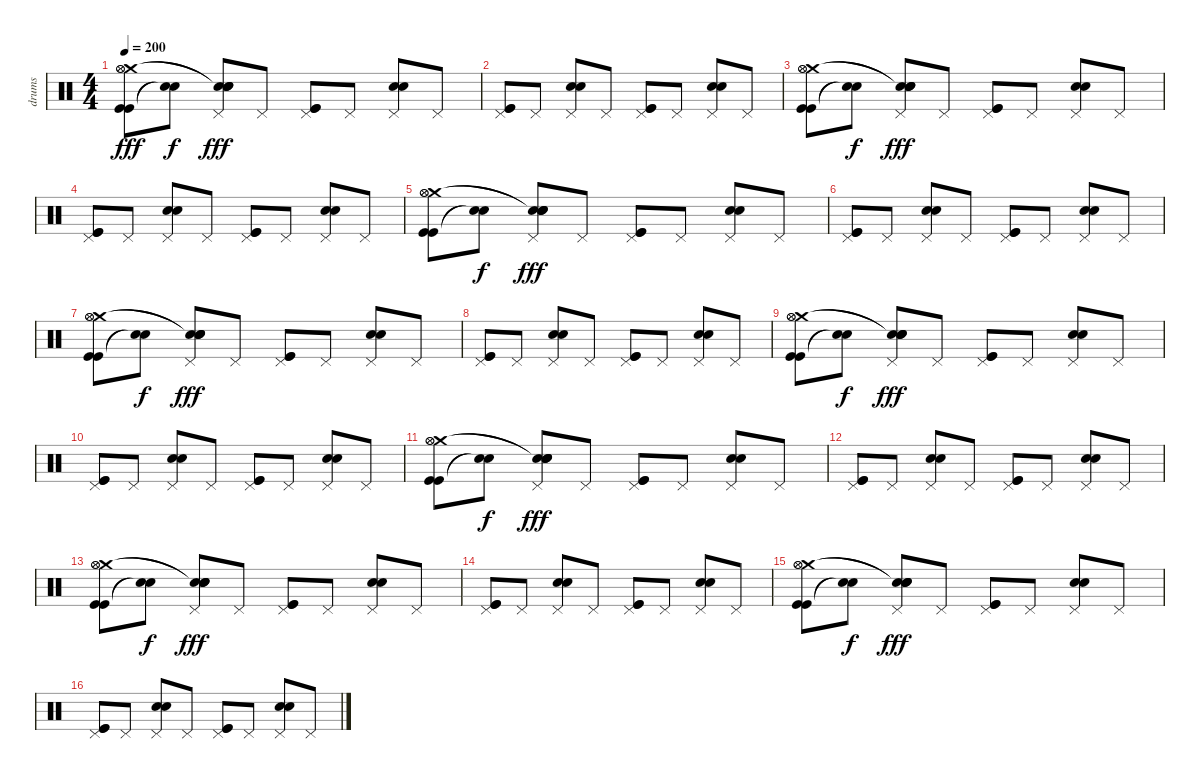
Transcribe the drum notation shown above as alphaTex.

\track ("drums" "drums") {instrument percussion}
\staff {score}
\articulation defaults
\ts (4 4)
\tempo 200
\clef neutral
\ks c
("Kick (hit)" "Kick (hit)" "Crash medium (hit)" "Hi-Hat (open)" "Hi-Hat (open)").8{dy fff} ("Snare (hit)"{t} "Snare (hit)"{t}).8{dy f} ("Snare (hit) 2" "Electric Snare (hit)" "Pedal Hi-Hat (hit)" "Snare (hit)"{t} "Snare (hit)"{t}).8{dy fff} "Pedal Hi-Hat (hit)".8 ("Kick (hit)" "Kick (hit)" "Pedal Hi-Hat (hit)").8 "Pedal Hi-Hat (hit)".8 ("Snare (hit) 2" "Electric Snare (hit)" "Pedal Hi-Hat (hit)").8 "Pedal Hi-Hat (hit)".8 |
("Kick (hit)" "Kick (hit)" "Pedal Hi-Hat (hit)").8 "Pedal Hi-Hat (hit)".8 ("Snare (hit) 2" "Electric Snare (hit)" "Pedal Hi-Hat (hit)").8 "Pedal Hi-Hat (hit)".8 ("Kick (hit)" "Kick (hit)" "Pedal Hi-Hat (hit)").8 "Pedal Hi-Hat (hit)".8 ("Snare (hit) 2" "Electric Snare (hit)" "Pedal Hi-Hat (hit)").8 "Pedal Hi-Hat (hit)".8 |
("Kick (hit)" "Kick (hit)" "Crash medium (hit)" "Hi-Hat (open)" "Hi-Hat (open)").8 ("Snare (hit)"{t} "Snare (hit)"{t}).8{dy f} ("Snare (hit) 2" "Electric Snare (hit)" "Pedal Hi-Hat (hit)" "Snare (hit)"{t} "Snare (hit)"{t}).8{dy fff} "Pedal Hi-Hat (hit)".8 ("Kick (hit)" "Kick (hit)" "Pedal Hi-Hat (hit)").8 "Pedal Hi-Hat (hit)".8 ("Snare (hit) 2" "Electric Snare (hit)" "Pedal Hi-Hat (hit)").8 "Pedal Hi-Hat (hit)".8 |
("Kick (hit)" "Kick (hit)" "Pedal Hi-Hat (hit)").8 "Pedal Hi-Hat (hit)".8 ("Snare (hit) 2" "Electric Snare (hit)" "Pedal Hi-Hat (hit)").8 "Pedal Hi-Hat (hit)".8 ("Kick (hit)" "Kick (hit)" "Pedal Hi-Hat (hit)").8 "Pedal Hi-Hat (hit)".8 ("Snare (hit) 2" "Electric Snare (hit)" "Pedal Hi-Hat (hit)").8 "Pedal Hi-Hat (hit)".8 |
("Kick (hit)" "Kick (hit)" "Crash medium (hit)" "Hi-Hat (open)" "Hi-Hat (open)").8 ("Snare (hit)"{t} "Snare (hit)"{t}).8{dy f} ("Snare (hit) 2" "Electric Snare (hit)" "Pedal Hi-Hat (hit)" "Snare (hit)"{t} "Snare (hit)"{t}).8{dy fff} "Pedal Hi-Hat (hit)".8 ("Kick (hit)" "Kick (hit)" "Pedal Hi-Hat (hit)").8 "Pedal Hi-Hat (hit)".8 ("Snare (hit) 2" "Electric Snare (hit)" "Pedal Hi-Hat (hit)").8 "Pedal Hi-Hat (hit)".8 |
("Kick (hit)" "Kick (hit)" "Pedal Hi-Hat (hit)").8 "Pedal Hi-Hat (hit)".8 ("Snare (hit) 2" "Electric Snare (hit)" "Pedal Hi-Hat (hit)").8 "Pedal Hi-Hat (hit)".8 ("Kick (hit)" "Kick (hit)" "Pedal Hi-Hat (hit)").8 "Pedal Hi-Hat (hit)".8 ("Snare (hit) 2" "Electric Snare (hit)" "Pedal Hi-Hat (hit)").8 "Pedal Hi-Hat (hit)".8 |
("Kick (hit)" "Kick (hit)" "Crash medium (hit)" "Hi-Hat (open)" "Hi-Hat (open)").8 ("Snare (hit)"{t} "Snare (hit)"{t}).8{dy f} ("Snare (hit) 2" "Electric Snare (hit)" "Pedal Hi-Hat (hit)" "Snare (hit)"{t} "Snare (hit)"{t}).8{dy fff} "Pedal Hi-Hat (hit)".8 ("Kick (hit)" "Kick (hit)" "Pedal Hi-Hat (hit)").8 "Pedal Hi-Hat (hit)".8 ("Snare (hit) 2" "Electric Snare (hit)" "Pedal Hi-Hat (hit)").8 "Pedal Hi-Hat (hit)".8 |
("Kick (hit)" "Kick (hit)" "Pedal Hi-Hat (hit)").8 "Pedal Hi-Hat (hit)".8 ("Snare (hit) 2" "Electric Snare (hit)" "Pedal Hi-Hat (hit)").8 "Pedal Hi-Hat (hit)".8 ("Kick (hit)" "Kick (hit)" "Pedal Hi-Hat (hit)").8 "Pedal Hi-Hat (hit)".8 ("Snare (hit) 2" "Electric Snare (hit)" "Pedal Hi-Hat (hit)").8 "Pedal Hi-Hat (hit)".8 |
("Kick (hit)" "Kick (hit)" "Crash medium (hit)" "Hi-Hat (open)" "Hi-Hat (open)").8 ("Snare (hit)"{t} "Snare (hit)"{t}).8{dy f} ("Snare (hit) 2" "Electric Snare (hit)" "Pedal Hi-Hat (hit)" "Snare (hit)"{t} "Snare (hit)"{t}).8{dy fff} "Pedal Hi-Hat (hit)".8 ("Kick (hit)" "Kick (hit)" "Pedal Hi-Hat (hit)").8 "Pedal Hi-Hat (hit)".8 ("Snare (hit) 2" "Electric Snare (hit)" "Pedal Hi-Hat (hit)").8 "Pedal Hi-Hat (hit)".8 |
("Kick (hit)" "Kick (hit)" "Pedal Hi-Hat (hit)").8 "Pedal Hi-Hat (hit)".8 ("Snare (hit) 2" "Electric Snare (hit)" "Pedal Hi-Hat (hit)").8 "Pedal Hi-Hat (hit)".8 ("Kick (hit)" "Kick (hit)" "Pedal Hi-Hat (hit)").8 "Pedal Hi-Hat (hit)".8 ("Snare (hit) 2" "Electric Snare (hit)" "Pedal Hi-Hat (hit)").8 "Pedal Hi-Hat (hit)".8 |
("Kick (hit)" "Kick (hit)" "Crash medium (hit)" "Hi-Hat (open)" "Hi-Hat (open)").8 ("Snare (hit)"{t} "Snare (hit)"{t}).8{dy f} ("Snare (hit) 2" "Electric Snare (hit)" "Pedal Hi-Hat (hit)" "Snare (hit)"{t} "Snare (hit)"{t}).8{dy fff} "Pedal Hi-Hat (hit)".8 ("Kick (hit)" "Kick (hit)" "Pedal Hi-Hat (hit)").8 "Pedal Hi-Hat (hit)".8 ("Snare (hit) 2" "Electric Snare (hit)" "Pedal Hi-Hat (hit)").8 "Pedal Hi-Hat (hit)".8 |
("Kick (hit)" "Kick (hit)" "Pedal Hi-Hat (hit)").8 "Pedal Hi-Hat (hit)".8 ("Snare (hit) 2" "Electric Snare (hit)" "Pedal Hi-Hat (hit)").8 "Pedal Hi-Hat (hit)".8 ("Kick (hit)" "Kick (hit)" "Pedal Hi-Hat (hit)").8 "Pedal Hi-Hat (hit)".8 ("Snare (hit) 2" "Electric Snare (hit)" "Pedal Hi-Hat (hit)").8 "Pedal Hi-Hat (hit)".8 |
("Kick (hit)" "Kick (hit)" "Crash medium (hit)" "Hi-Hat (open)" "Hi-Hat (open)").8 ("Snare (hit)"{t} "Snare (hit)"{t}).8{dy f} ("Snare (hit) 2" "Electric Snare (hit)" "Pedal Hi-Hat (hit)" "Snare (hit)"{t} "Snare (hit)"{t}).8{dy fff} "Pedal Hi-Hat (hit)".8 ("Kick (hit)" "Kick (hit)" "Pedal Hi-Hat (hit)").8 "Pedal Hi-Hat (hit)".8 ("Snare (hit) 2" "Electric Snare (hit)" "Pedal Hi-Hat (hit)").8 "Pedal Hi-Hat (hit)".8 |
("Kick (hit)" "Kick (hit)" "Pedal Hi-Hat (hit)").8 "Pedal Hi-Hat (hit)".8 ("Snare (hit) 2" "Electric Snare (hit)" "Pedal Hi-Hat (hit)").8 "Pedal Hi-Hat (hit)".8 ("Kick (hit)" "Kick (hit)" "Pedal Hi-Hat (hit)").8 "Pedal Hi-Hat (hit)".8 ("Snare (hit) 2" "Electric Snare (hit)" "Pedal Hi-Hat (hit)").8 "Pedal Hi-Hat (hit)".8 |
("Kick (hit)" "Kick (hit)" "Crash medium (hit)" "Hi-Hat (open)" "Hi-Hat (open)").8 ("Snare (hit)"{t} "Snare (hit)"{t}).8{dy f} ("Snare (hit) 2" "Electric Snare (hit)" "Pedal Hi-Hat (hit)" "Snare (hit)"{t} "Snare (hit)"{t}).8{dy fff} "Pedal Hi-Hat (hit)".8 ("Kick (hit)" "Kick (hit)" "Pedal Hi-Hat (hit)").8 "Pedal Hi-Hat (hit)".8 ("Snare (hit) 2" "Electric Snare (hit)" "Pedal Hi-Hat (hit)").8 "Pedal Hi-Hat (hit)".8 |
("Kick (hit)" "Kick (hit)" "Pedal Hi-Hat (hit)").8 "Pedal Hi-Hat (hit)".8 ("Snare (hit) 2" "Electric Snare (hit)" "Pedal Hi-Hat (hit)").8 "Pedal Hi-Hat (hit)".8 ("Kick (hit)" "Kick (hit)" "Pedal Hi-Hat (hit)").8 "Pedal Hi-Hat (hit)".8 ("Snare (hit) 2" "Electric Snare (hit)" "Pedal Hi-Hat (hit)").8 "Pedal Hi-Hat (hit)".8
